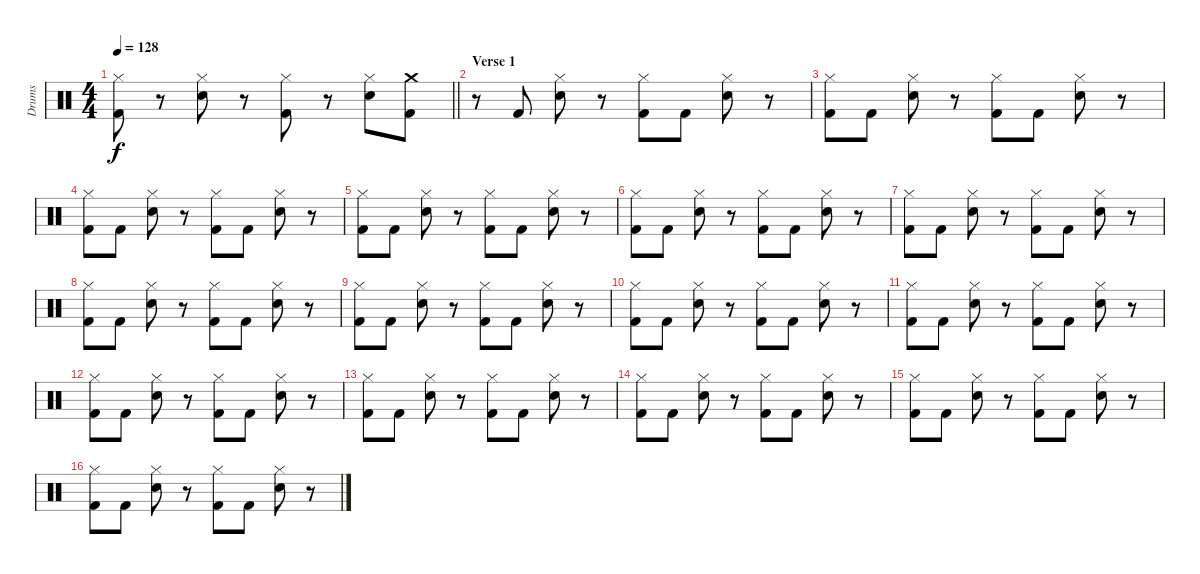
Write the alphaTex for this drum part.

\track ("Drums" "Drums") {instrument percussion}
\staff {score}
\articulation defaults
\ts (4 4)
\tempo 128
\clef neutral
\barLineRight lightlight
\ks c
("Hi-Hat (closed)" "Kick (hit) 2").8{dy f} r.8 ("Hi-Hat (closed)" "Snare (hit) 2").8 r.8 ("Hi-Hat (closed)" "Kick (hit) 2").8 r.8 ("Hi-Hat (closed)" "Snare (hit) 2").8 ("Crash medium (hit)" "Kick (hit) 2").8 |
\section ("" "Verse 1")
r.8 "Kick (hit) 2".8 ("Hi-Hat (closed)" "Snare (hit) 2").8 r.8 ("Hi-Hat (closed)" "Kick (hit) 2").8 "Kick (hit) 2".8 ("Hi-Hat (closed)" "Snare (hit) 2").8 r.8 |
("Hi-Hat (closed)" "Kick (hit) 2").8 "Kick (hit) 2".8 ("Hi-Hat (closed)" "Snare (hit) 2").8 r.8 ("Hi-Hat (closed)" "Kick (hit) 2").8 "Kick (hit) 2".8 ("Hi-Hat (closed)" "Snare (hit) 2").8 r.8 |
("Hi-Hat (closed)" "Kick (hit) 2").8 "Kick (hit) 2".8 ("Hi-Hat (closed)" "Snare (hit) 2").8 r.8 ("Hi-Hat (closed)" "Kick (hit) 2").8 "Kick (hit) 2".8 ("Hi-Hat (closed)" "Snare (hit) 2").8 r.8 |
("Hi-Hat (closed)" "Kick (hit) 2").8 "Kick (hit) 2".8 ("Hi-Hat (closed)" "Snare (hit) 2").8 r.8 ("Hi-Hat (closed)" "Kick (hit) 2").8 "Kick (hit) 2".8 ("Hi-Hat (closed)" "Snare (hit) 2").8 r.8 |
("Hi-Hat (closed)" "Kick (hit) 2").8 "Kick (hit) 2".8 ("Hi-Hat (closed)" "Snare (hit) 2").8 r.8 ("Hi-Hat (closed)" "Kick (hit) 2").8 "Kick (hit) 2".8 ("Hi-Hat (closed)" "Snare (hit) 2").8 r.8 |
("Hi-Hat (closed)" "Kick (hit) 2").8 "Kick (hit) 2".8 ("Hi-Hat (closed)" "Snare (hit) 2").8 r.8 ("Hi-Hat (closed)" "Kick (hit) 2").8 "Kick (hit) 2".8 ("Hi-Hat (closed)" "Snare (hit) 2").8 r.8 |
("Hi-Hat (closed)" "Kick (hit) 2").8 "Kick (hit) 2".8 ("Hi-Hat (closed)" "Snare (hit) 2").8 r.8 ("Hi-Hat (closed)" "Kick (hit) 2").8 "Kick (hit) 2".8 ("Hi-Hat (closed)" "Snare (hit) 2").8 r.8 |
("Hi-Hat (closed)" "Kick (hit) 2").8 "Kick (hit) 2".8 ("Hi-Hat (closed)" "Snare (hit) 2").8 r.8 ("Hi-Hat (closed)" "Kick (hit) 2").8 "Kick (hit) 2".8 ("Hi-Hat (closed)" "Snare (hit) 2").8 r.8 |
("Hi-Hat (closed)" "Kick (hit) 2").8 "Kick (hit) 2".8 ("Hi-Hat (closed)" "Snare (hit) 2").8 r.8 ("Hi-Hat (closed)" "Kick (hit) 2").8 "Kick (hit) 2".8 ("Hi-Hat (closed)" "Snare (hit) 2").8 r.8 |
("Hi-Hat (closed)" "Kick (hit) 2").8 "Kick (hit) 2".8 ("Hi-Hat (closed)" "Snare (hit) 2").8 r.8 ("Hi-Hat (closed)" "Kick (hit) 2").8 "Kick (hit) 2".8 ("Hi-Hat (closed)" "Snare (hit) 2").8 r.8 |
("Hi-Hat (closed)" "Kick (hit) 2").8 "Kick (hit) 2".8 ("Hi-Hat (closed)" "Snare (hit) 2").8 r.8 ("Hi-Hat (closed)" "Kick (hit) 2").8 "Kick (hit) 2".8 ("Hi-Hat (closed)" "Snare (hit) 2").8 r.8 |
("Hi-Hat (closed)" "Kick (hit) 2").8 "Kick (hit) 2".8 ("Hi-Hat (closed)" "Snare (hit) 2").8 r.8 ("Hi-Hat (closed)" "Kick (hit) 2").8 "Kick (hit) 2".8 ("Hi-Hat (closed)" "Snare (hit) 2").8 r.8 |
("Hi-Hat (closed)" "Kick (hit) 2").8 "Kick (hit) 2".8 ("Hi-Hat (closed)" "Snare (hit) 2").8 r.8 ("Hi-Hat (closed)" "Kick (hit) 2").8 "Kick (hit) 2".8 ("Hi-Hat (closed)" "Snare (hit) 2").8 r.8 |
("Hi-Hat (closed)" "Kick (hit) 2").8 "Kick (hit) 2".8 ("Hi-Hat (closed)" "Snare (hit) 2").8 r.8 ("Hi-Hat (closed)" "Kick (hit) 2").8 "Kick (hit) 2".8 ("Hi-Hat (closed)" "Snare (hit) 2").8 r.8 |
("Hi-Hat (closed)" "Kick (hit) 2").8 "Kick (hit) 2".8 ("Hi-Hat (closed)" "Snare (hit) 2").8 r.8 ("Hi-Hat (closed)" "Kick (hit) 2").8 "Kick (hit) 2".8 ("Hi-Hat (closed)" "Snare (hit) 2").8 r.8
